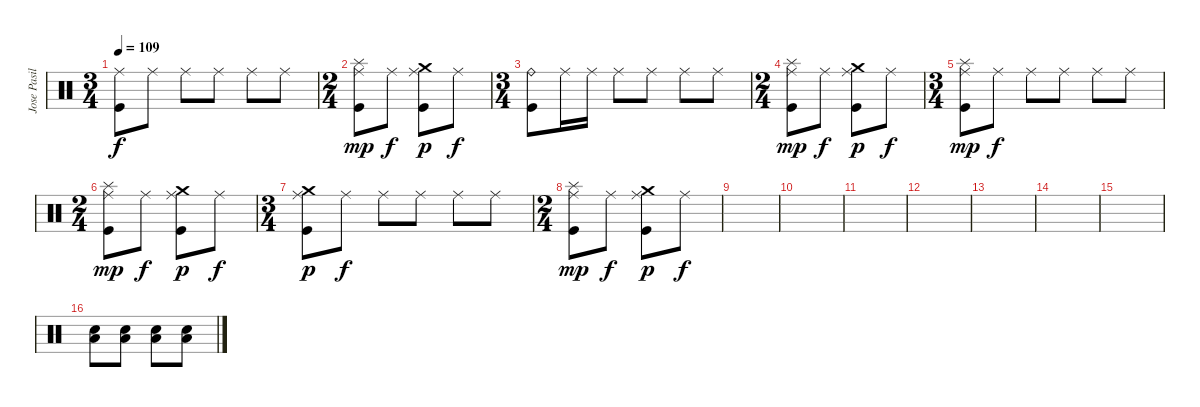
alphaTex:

\track ("Jose Pasillas" "Jose Pasil") {instrument percussion}
\staff {score}
\articulation defaults
\ts (3 4)
\tempo 109
\clef neutral
\ks c
("Ride (middle)" "Kick (hit)").8{dy f} "Ride (middle)".8 "Ride (middle)".8 "Ride (middle)".8 "Ride (middle)".8 "Ride (middle)".8 |
\ts (2 4)
("Ride (middle)" "Splash (hit)" "Kick (hit)").8{dy mp} "Ride (middle)".8{dy f} ("Ride (middle)" "Crash medium (hit)" "Kick (hit)").8{dy p} "Ride (middle)".8{dy f} |
\ts (3 4)
("Ride (bell)" "Kick (hit)").8 "Ride (middle)".16 "Ride (middle)".16 "Ride (middle)".8 "Ride (middle)".8 "Ride (middle)".8 "Ride (middle)".8 |
\ts (2 4)
("Ride (middle)" "Splash (hit)" "Kick (hit)").8{dy mp} "Ride (middle)".8{dy f} ("Ride (middle)" "Crash medium (hit)" "Kick (hit)").8{dy p} "Ride (middle)".8{dy f} |
\ts (3 4)
("Ride (middle)" "Splash (hit)" "Kick (hit)").8{dy mp} "Ride (middle)".8{dy f} "Ride (middle)".8 "Ride (middle)".8 "Ride (middle)".8 "Ride (middle)".8 |
\ts (2 4)
("Ride (middle)" "Splash (hit)" "Kick (hit)").8{dy mp} "Ride (middle)".8{dy f} ("Ride (middle)" "Crash medium (hit)" "Kick (hit)").8{dy p} "Ride (middle)".8{dy f} |
\ts (3 4)
("Ride (middle)" "Crash medium (hit)" "Kick (hit)").8{dy p} "Ride (middle)".8{dy f} "Ride (middle)".8 "Ride (middle)".8 "Ride (middle)".8 "Ride (middle)".8 |
\ts (2 4)
("Ride (middle)" "Splash (hit)" "Kick (hit)").8{dy mp} "Ride (middle)".8{dy f} ("Ride (middle)" "Crash medium (hit)" "Kick (hit)").8{dy p} "Ride (middle)".8{dy f} |
|
|
|
|
|
|
|
("Low Floor Tom (hit)" "Electric Snare (hit)").8{volume 4} ("Low Floor Tom (hit)" "Electric Snare (hit)").8 ("Low Floor Tom (hit)" "Electric Snare (hit)").8 ("Low Floor Tom (hit)" "Electric Snare (hit)").8
